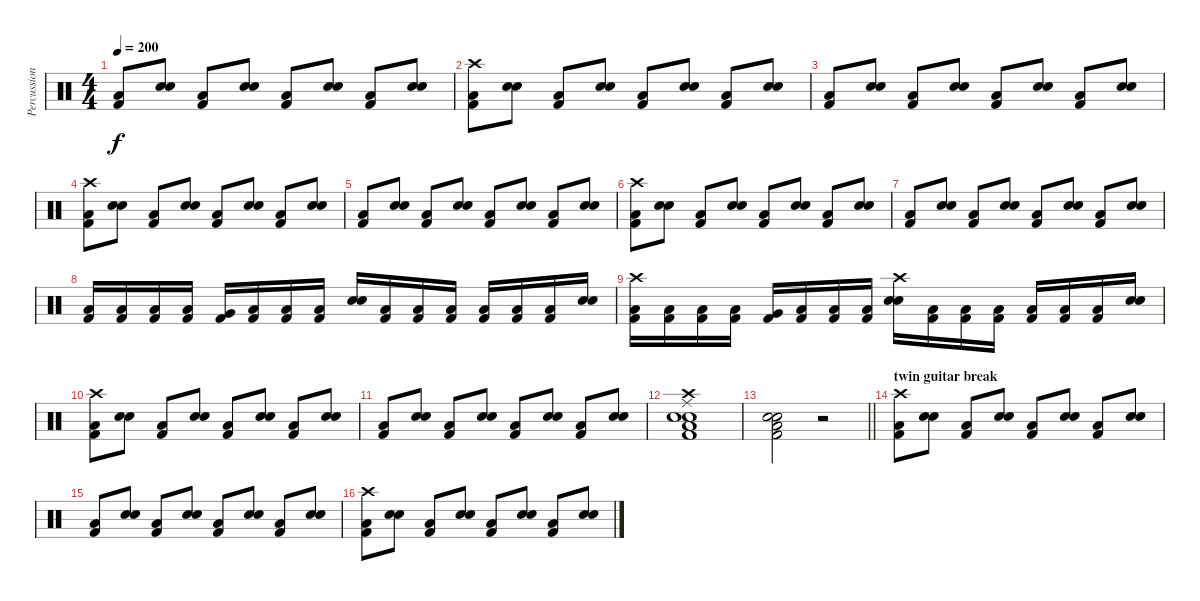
\track ("Percussion, dave" "Percussion") {instrument percussion}
\staff {score}
\articulation defaults
\ts (4 4)
\tempo 200
\clef neutral
\ks c
("Low Tom (hit)" "Kick (hit) 2").8{dy f} ("Snare (hit) 2" "Electric Snare (hit)").8 ("Low Tom (hit)" "Kick (hit) 2").8 ("Snare (hit) 2" "Electric Snare (hit)").8 ("Low Tom (hit)" "Kick (hit) 2").8 ("Snare (hit) 2" "Electric Snare (hit)").8 ("Low Tom (hit)" "Kick (hit) 2").8 ("Snare (hit) 2" "Electric Snare (hit)").8 |
("Crash high (hit)" "Low Tom (hit)" "Kick (hit) 2").8 ("Snare (hit) 2" "Electric Snare (hit)").8 ("Low Tom (hit)" "Kick (hit) 2").8 ("Snare (hit) 2" "Electric Snare (hit)").8 ("Low Tom (hit)" "Kick (hit) 2").8 ("Snare (hit) 2" "Electric Snare (hit)").8 ("Low Tom (hit)" "Kick (hit) 2").8 ("Snare (hit) 2" "Electric Snare (hit)").8 |
("Low Tom (hit)" "Kick (hit) 2").8 ("Snare (hit) 2" "Electric Snare (hit)").8 ("Low Tom (hit)" "Kick (hit) 2").8 ("Snare (hit) 2" "Electric Snare (hit)").8 ("Low Tom (hit)" "Kick (hit) 2").8 ("Snare (hit) 2" "Electric Snare (hit)").8 ("Low Tom (hit)" "Kick (hit) 2").8 ("Snare (hit) 2" "Electric Snare (hit)").8 |
("Crash high (hit)" "Low Tom (hit)" "Kick (hit) 2").8 ("Snare (hit) 2" "Electric Snare (hit)").8 ("Low Tom (hit)" "Kick (hit) 2").8 ("Snare (hit) 2" "Electric Snare (hit)").8 ("Low Tom (hit)" "Kick (hit) 2").8 ("Snare (hit) 2" "Electric Snare (hit)").8 ("Low Tom (hit)" "Kick (hit) 2").8 ("Snare (hit) 2" "Electric Snare (hit)").8 |
("Low Tom (hit)" "Kick (hit) 2").8 ("Snare (hit) 2" "Electric Snare (hit)").8 ("Low Tom (hit)" "Kick (hit) 2").8 ("Snare (hit) 2" "Electric Snare (hit)").8 ("Low Tom (hit)" "Kick (hit) 2").8 ("Snare (hit) 2" "Electric Snare (hit)").8 ("Low Tom (hit)" "Kick (hit) 2").8 ("Snare (hit) 2" "Electric Snare (hit)").8 |
("Crash high (hit)" "Low Tom (hit)" "Kick (hit) 2").8 ("Snare (hit) 2" "Electric Snare (hit)").8 ("Low Tom (hit)" "Kick (hit) 2").8 ("Snare (hit) 2" "Electric Snare (hit)").8 ("Low Tom (hit)" "Kick (hit) 2").8 ("Snare (hit) 2" "Electric Snare (hit)").8 ("Low Tom (hit)" "Kick (hit) 2").8 ("Snare (hit) 2" "Electric Snare (hit)").8 |
("Low Tom (hit)" "Kick (hit) 2").8 ("Snare (hit) 2" "Electric Snare (hit)").8 ("Low Tom (hit)" "Kick (hit) 2").8 ("Snare (hit) 2" "Electric Snare (hit)").8 ("Low Tom (hit)" "Kick (hit) 2").8 ("Snare (hit) 2" "Electric Snare (hit)").8 ("Low Tom (hit)" "Kick (hit) 2").8 ("Snare (hit) 2" "Electric Snare (hit)").8 |
("Low Tom (hit)" "Kick (hit) 2").16 ("Low Tom (hit)" "Kick (hit) 2").16 ("Low Tom (hit)" "Kick (hit) 2").16 ("Low Tom (hit)" "Kick (hit) 2").16 ("Very Low Tom (hit)" "Kick (hit) 2").16 ("Low Tom (hit)" "Kick (hit) 2").16 ("Low Tom (hit)" "Kick (hit) 2").16 ("Low Tom (hit)" "Kick (hit) 2").16 ("Snare (hit) 2" "Electric Snare (hit)").16 ("Low Tom (hit)" "Kick (hit) 2").16 ("Low Tom (hit)" "Kick (hit) 2").16 ("Low Tom (hit)" "Kick (hit) 2").16 ("Low Tom (hit)" "Kick (hit) 2").16 ("Low Tom (hit)" "Kick (hit) 2").16 ("Low Tom (hit)" "Kick (hit) 2").16 ("Snare (hit) 2" "Electric Snare (hit)").16 |
("Crash high (hit)" "Low Tom (hit)" "Kick (hit) 2").16 ("Low Tom (hit)" "Kick (hit) 2").16 ("Low Tom (hit)" "Kick (hit) 2").16 ("Low Tom (hit)" "Kick (hit) 2").16 ("Very Low Tom (hit)" "Kick (hit) 2").16 ("Low Tom (hit)" "Kick (hit) 2").16 ("Low Tom (hit)" "Kick (hit) 2").16 ("Low Tom (hit)" "Kick (hit) 2").16 ("Snare (hit) 2" "Electric Snare (hit)" "Crash high (hit)").16 ("Low Tom (hit)" "Kick (hit) 2").16 ("Low Tom (hit)" "Kick (hit) 2").16 ("Low Tom (hit)" "Kick (hit) 2").16 ("Low Tom (hit)" "Kick (hit) 2").16 ("Low Tom (hit)" "Kick (hit) 2").16 ("Low Tom (hit)" "Kick (hit) 2").16 ("Snare (hit) 2" "Electric Snare (hit)").16 |
("Crash high (hit)" "Low Tom (hit)" "Kick (hit) 2").8 ("Snare (hit) 2" "Electric Snare (hit)").8 ("Low Tom (hit)" "Kick (hit) 2").8 ("Snare (hit) 2" "Electric Snare (hit)").8 ("Low Tom (hit)" "Kick (hit) 2").8 ("Snare (hit) 2" "Electric Snare (hit)").8 ("Low Tom (hit)" "Kick (hit) 2").8 ("Snare (hit) 2" "Electric Snare (hit)").8 |
("Low Tom (hit)" "Kick (hit) 2").8 ("Snare (hit) 2" "Electric Snare (hit)").8 ("Low Tom (hit)" "Kick (hit) 2").8 ("Snare (hit) 2" "Electric Snare (hit)").8 ("Low Tom (hit)" "Kick (hit) 2").8 ("Snare (hit) 2" "Electric Snare (hit)").8 ("Low Tom (hit)" "Kick (hit) 2").8 ("Snare (hit) 2" "Electric Snare (hit)").8 |
("Crash high (hit)" "Ride (middle)" "Snare (hit) 2" "Electric Snare (hit)" "Kick (hit) 2" "Low Tom (hit)").1 |
\barLineRight lightlight
("Electric Snare (hit)" "Snare (hit) 2" "Low Tom (hit)" "Kick (hit) 2").2 r.2 |
\section ("" "twin guitar break")
("Crash high (hit)" "Low Tom (hit)" "Kick (hit) 2").8 ("Snare (hit) 2" "Electric Snare (hit)").8 ("Low Tom (hit)" "Kick (hit) 2").8 ("Snare (hit) 2" "Electric Snare (hit)").8 ("Low Tom (hit)" "Kick (hit) 2").8 ("Snare (hit) 2" "Electric Snare (hit)").8 ("Low Tom (hit)" "Kick (hit) 2").8 ("Snare (hit) 2" "Electric Snare (hit)").8 |
("Low Tom (hit)" "Kick (hit) 2").8 ("Snare (hit) 2" "Electric Snare (hit)").8 ("Low Tom (hit)" "Kick (hit) 2").8 ("Snare (hit) 2" "Electric Snare (hit)").8 ("Low Tom (hit)" "Kick (hit) 2").8 ("Snare (hit) 2" "Electric Snare (hit)").8 ("Low Tom (hit)" "Kick (hit) 2").8 ("Snare (hit) 2" "Electric Snare (hit)").8 |
("Crash high (hit)" "Low Tom (hit)" "Kick (hit) 2").8 ("Snare (hit) 2" "Electric Snare (hit)").8 ("Low Tom (hit)" "Kick (hit) 2").8 ("Snare (hit) 2" "Electric Snare (hit)").8 ("Low Tom (hit)" "Kick (hit) 2").8 ("Snare (hit) 2" "Electric Snare (hit)").8 ("Low Tom (hit)" "Kick (hit) 2").8 ("Snare (hit) 2" "Electric Snare (hit)").8
